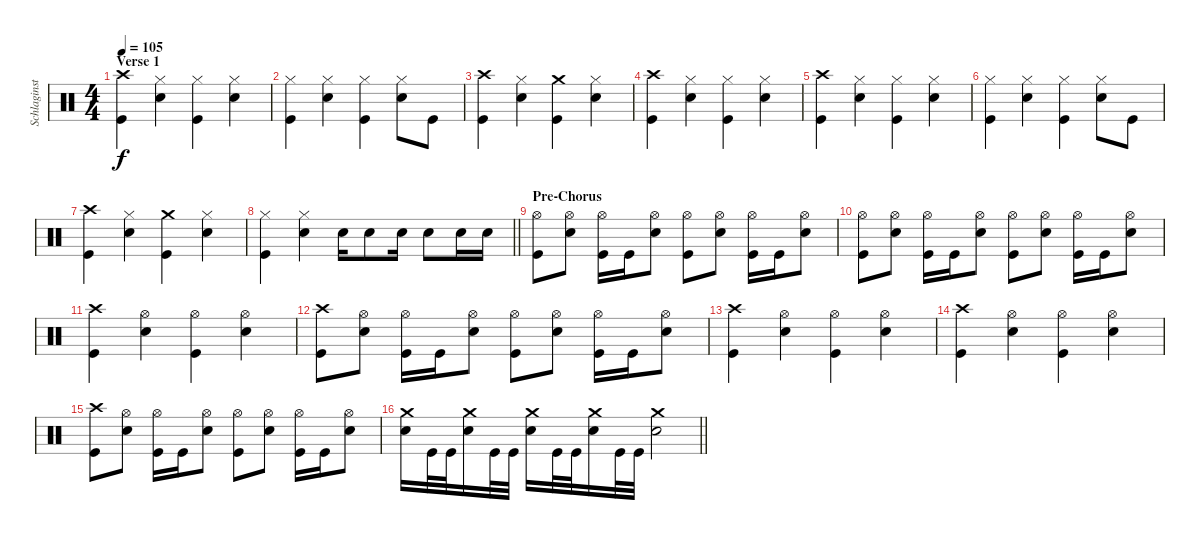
\track ("Schlaginstrumente - Auswahl" "Schlaginst") {instrument percussion}
\staff {score}
\articulation defaults
\ts (4 4)
\section ("" "Verse 1")
\tempo 105
\clef neutral
\ks c
("Crash high (hit)" "Kick (hit)").4{dy f} ("Hi-Hat (closed)" "Snare (hit) 2").4 ("Kick (hit)" "Hi-Hat (closed)").4 ("Snare (hit) 2" "Hi-Hat (closed)").4 |
("Kick (hit)" "Hi-Hat (closed)").4 ("Hi-Hat (closed)" "Snare (hit) 2").4 ("Kick (hit)" "Hi-Hat (closed)").4 ("Snare (hit) 2" "Hi-Hat (closed)").8 "Kick (hit)".8 |
("Crash high (hit)" "Kick (hit)").4 ("Hi-Hat (closed)" "Snare (hit) 2").4 ("Kick (hit)" "Crash medium (hit)").4 ("Snare (hit) 2" "Hi-Hat (closed)").4 |
("Crash high (hit)" "Kick (hit)").4 ("Hi-Hat (closed)" "Snare (hit) 2").4 ("Kick (hit)" "Hi-Hat (closed)").4 ("Snare (hit) 2" "Hi-Hat (closed)").4 |
("Crash high (hit)" "Kick (hit)").4 ("Hi-Hat (closed)" "Snare (hit) 2").4 ("Kick (hit)" "Hi-Hat (closed)").4 ("Snare (hit) 2" "Hi-Hat (closed)").4 |
("Kick (hit)" "Hi-Hat (closed)").4 ("Hi-Hat (closed)" "Snare (hit) 2").4 ("Kick (hit)" "Hi-Hat (closed)").4 ("Snare (hit) 2" "Hi-Hat (closed)").8 "Kick (hit)".8 |
("Crash high (hit)" "Kick (hit)").4 ("Hi-Hat (closed)" "Snare (hit) 2").4 ("Kick (hit)" "Crash medium (hit)").4 ("Snare (hit) 2" "Hi-Hat (closed)").4 |
\barLineRight lightlight
("Hi-Hat (closed)" "Kick (hit)").4 ("Hi-Hat (closed)" "Snare (hit) 2").4 "Snare (hit) 2".16 "Snare (hit) 2".8 "Snare (hit) 2".16 "Snare (hit) 2".8 "Snare (hit) 2".16 "Snare (hit) 2".16 |
\section ("" "Pre-Chorus")
("Hi-Hat (open)" "Kick (hit)").8 ("Snare (hit) 2" "Hi-Hat (open)").8 ("Kick (hit)" "Hi-Hat (open)").16 "Kick (hit)".16 ("Hi-Hat (open)" "Snare (hit) 2").8 ("Hi-Hat (open)" "Kick (hit)").8 ("Snare (hit) 2" "Hi-Hat (open)").8 ("Kick (hit)" "Hi-Hat (open)").16 "Kick (hit)".16 ("Hi-Hat (open)" "Snare (hit) 2").8 |
("Hi-Hat (open)" "Kick (hit)").8 ("Snare (hit) 2" "Hi-Hat (open)").8 ("Kick (hit)" "Hi-Hat (open)").16 "Kick (hit)".16 ("Hi-Hat (open)" "Snare (hit) 2").8 ("Hi-Hat (open)" "Kick (hit)").8 ("Snare (hit) 2" "Hi-Hat (open)").8 ("Kick (hit)" "Hi-Hat (open)").16 "Kick (hit)".16 ("Hi-Hat (open)" "Snare (hit) 2").8 |
("Kick (hit)" "Crash high (hit)").4 ("Hi-Hat (open)" "Snare (hit) 2").4 ("Kick (hit)" "Hi-Hat (open)").4 ("Snare (hit) 2" "Hi-Hat (open)").4 |
("Crash high (hit)" "Kick (hit)").8 ("Snare (hit) 2" "Hi-Hat (open)").8 ("Kick (hit)" "Hi-Hat (open)").16 "Kick (hit)".16 ("Hi-Hat (open)" "Snare (hit) 2").8 ("Hi-Hat (open)" "Kick (hit)").8 ("Snare (hit) 2" "Hi-Hat (open)").8 ("Kick (hit)" "Hi-Hat (open)").16 "Kick (hit)".16 ("Hi-Hat (open)" "Snare (hit) 2").8 |
("Kick (hit)" "Crash high (hit)").4 ("Hi-Hat (open)" "Snare (hit) 2").4 ("Kick (hit)" "Hi-Hat (open)").4 ("Snare (hit) 2" "Hi-Hat (open)").4 |
("Kick (hit)" "Crash high (hit)").4 ("Hi-Hat (open)" "Snare (hit) 2").4 ("Kick (hit)" "Hi-Hat (open)").4 ("Snare (hit) 2" "Hi-Hat (open)").4 |
("Crash high (hit)" "Kick (hit)").8 ("Snare (hit) 2" "Hi-Hat (open)").8 ("Kick (hit)" "Hi-Hat (open)").16 "Kick (hit)".16 ("Hi-Hat (open)" "Snare (hit) 2").8 ("Hi-Hat (open)" "Kick (hit)").8 ("Snare (hit) 2" "Hi-Hat (open)").8 ("Kick (hit)" "Hi-Hat (open)").16 "Kick (hit)".16 ("Hi-Hat (open)" "Snare (hit) 2").8 |
\barLineRight lightlight
("Snare (hit) 2" "Crash medium (hit)").16 "Kick (hit)".32 "Kick (hit)".32 ("Snare (hit) 2" "Crash medium (hit)").16 "Kick (hit)".32 "Kick (hit)".32 ("Snare (hit) 2" "Crash medium (hit)").16 "Kick (hit)".32 "Kick (hit)".32 ("Snare (hit) 2" "Crash medium (hit)").16 "Kick (hit)".32 "Kick (hit)".32 ("Snare (hit) 2" "Crash medium (hit)").2
